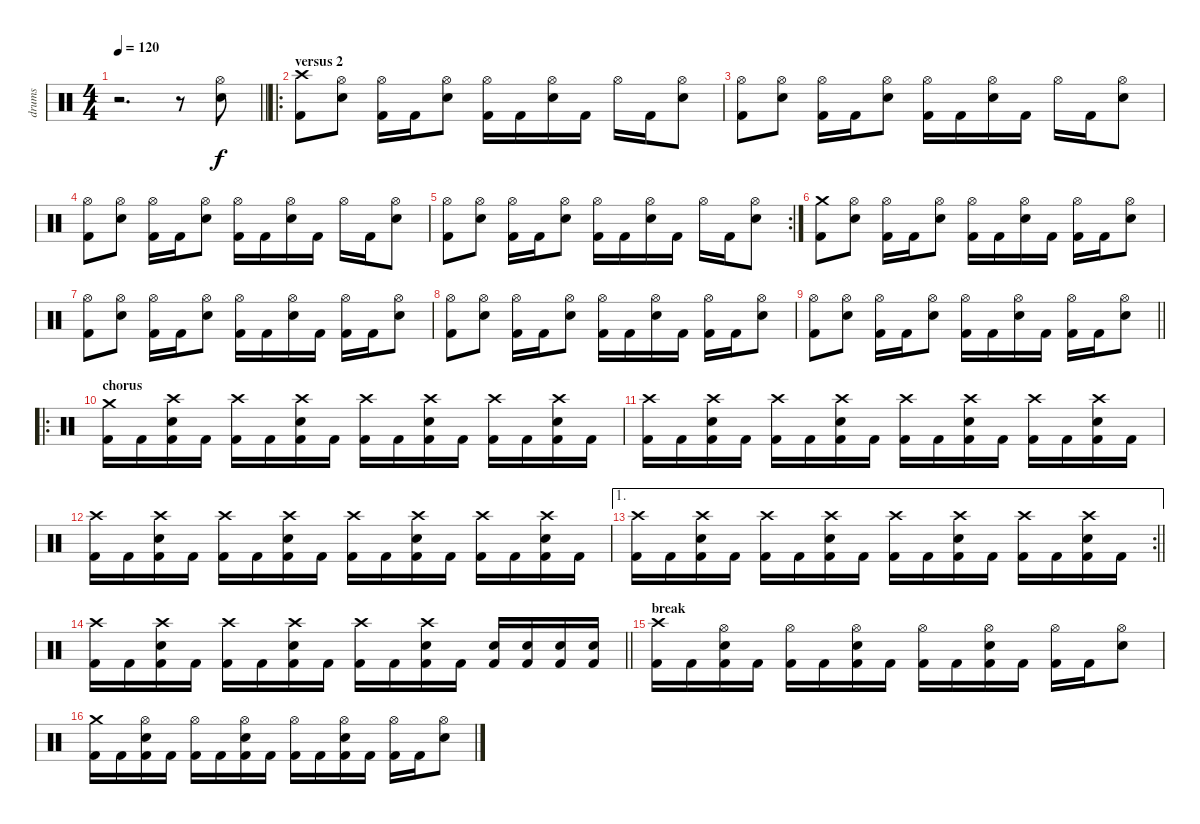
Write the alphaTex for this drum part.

\track ("drums" "drums") {instrument percussion}
\staff {score}
\articulation defaults
\ts (4 4)
\tempo 120
\clef neutral
\barLineRight lightlight
\ks c
r.2{d dy f} r.8 ("Hi-Hat (open)" "Snare (hit) 2").8 |
\ro
\section ("" "versus 2")
("Crash high (hit)" "Kick (hit) 2").8 ("Hi-Hat (open)" "Snare (hit) 2").8 ("Hi-Hat (open)" "Kick (hit) 2").16 "Kick (hit) 2".16 ("Hi-Hat (open)" "Snare (hit) 2").8 ("Hi-Hat (open)" "Kick (hit) 2").16 "Kick (hit) 2".16 ("Hi-Hat (open)" "Snare (hit) 2").16 "Kick (hit) 2".16 "Hi-Hat (open)".16 "Kick (hit) 2".16 ("Hi-Hat (open)" "Snare (hit) 2").8 |
("Hi-Hat (open)" "Kick (hit) 2").8 ("Hi-Hat (open)" "Snare (hit) 2").8 ("Hi-Hat (open)" "Kick (hit) 2").16 "Kick (hit) 2".16 ("Hi-Hat (open)" "Snare (hit) 2").8 ("Hi-Hat (open)" "Kick (hit) 2").16 "Kick (hit) 2".16 ("Hi-Hat (open)" "Snare (hit) 2").16 "Kick (hit) 2".16 "Hi-Hat (open)".16 "Kick (hit) 2".16 ("Hi-Hat (open)" "Snare (hit) 2").8 |
("Hi-Hat (open)" "Kick (hit) 2").8 ("Hi-Hat (open)" "Snare (hit) 2").8 ("Hi-Hat (open)" "Kick (hit) 2").16 "Kick (hit) 2".16 ("Hi-Hat (open)" "Snare (hit) 2").8 ("Hi-Hat (open)" "Kick (hit) 2").16 "Kick (hit) 2".16 ("Hi-Hat (open)" "Snare (hit) 2").16 "Kick (hit) 2".16 "Hi-Hat (open)".16 "Kick (hit) 2".16 ("Hi-Hat (open)" "Snare (hit) 2").8 |
\rc 2
("Hi-Hat (open)" "Kick (hit) 2").8 ("Hi-Hat (open)" "Snare (hit) 2").8 ("Hi-Hat (open)" "Kick (hit) 2").16 "Kick (hit) 2".16 ("Hi-Hat (open)" "Snare (hit) 2").8 ("Hi-Hat (open)" "Kick (hit) 2").16 "Kick (hit) 2".16 ("Hi-Hat (open)" "Snare (hit) 2").16 "Kick (hit) 2".16 "Hi-Hat (open)".16 "Kick (hit) 2".16 ("Hi-Hat (open)" "Snare (hit) 2").8 |
("Crash medium (hit)" "Kick (hit) 2").8 ("Hi-Hat (open)" "Snare (hit) 2").8 ("Hi-Hat (open)" "Kick (hit) 2").16 "Kick (hit) 2".16 ("Hi-Hat (open)" "Snare (hit) 2").8 ("Hi-Hat (open)" "Kick (hit) 2").16 "Kick (hit) 2".16 ("Hi-Hat (open)" "Snare (hit) 2").16 "Kick (hit) 2".16 ("Hi-Hat (open)" "Kick (hit) 2").16 "Kick (hit) 2".16 ("Hi-Hat (open)" "Snare (hit) 2").8 |
("Hi-Hat (open)" "Kick (hit) 2").8 ("Hi-Hat (open)" "Snare (hit) 2").8 ("Hi-Hat (open)" "Kick (hit) 2").16 "Kick (hit) 2".16 ("Hi-Hat (open)" "Snare (hit) 2").8 ("Hi-Hat (open)" "Kick (hit) 2").16 "Kick (hit) 2".16 ("Hi-Hat (open)" "Snare (hit) 2").16 "Kick (hit) 2".16 ("Hi-Hat (open)" "Kick (hit) 2").16 "Kick (hit) 2".16 ("Hi-Hat (open)" "Snare (hit) 2").8 |
("Hi-Hat (open)" "Kick (hit) 2").8 ("Hi-Hat (open)" "Snare (hit) 2").8 ("Hi-Hat (open)" "Kick (hit) 2").16 "Kick (hit) 2".16 ("Hi-Hat (open)" "Snare (hit) 2").8 ("Hi-Hat (open)" "Kick (hit) 2").16 "Kick (hit) 2".16 ("Hi-Hat (open)" "Snare (hit) 2").16 "Kick (hit) 2".16 ("Hi-Hat (open)" "Kick (hit) 2").16 "Kick (hit) 2".16 ("Hi-Hat (open)" "Snare (hit) 2").8 |
\barLineRight lightlight
("Hi-Hat (open)" "Kick (hit) 2").8 ("Hi-Hat (open)" "Snare (hit) 2").8 ("Hi-Hat (open)" "Kick (hit) 2").16 "Kick (hit) 2".16 ("Hi-Hat (open)" "Snare (hit) 2").8 ("Hi-Hat (open)" "Kick (hit) 2").16 "Kick (hit) 2".16 ("Hi-Hat (open)" "Snare (hit) 2").16 "Kick (hit) 2".16 ("Hi-Hat (open)" "Kick (hit) 2").16 "Kick (hit) 2".16 ("Hi-Hat (open)" "Snare (hit) 2").8 |
\ro
\section ("" "chorus")
("Crash medium (hit)" "Kick (hit) 2").16 "Kick (hit) 2".16 ("Crash high (hit)" "Snare (hit) 2" "Kick (hit) 2").16 "Kick (hit) 2".16 ("Crash high (hit)" "Kick (hit) 2").16 "Kick (hit) 2".16 ("Crash high (hit)" "Snare (hit) 2" "Kick (hit) 2").16 "Kick (hit) 2".16 ("Crash high (hit)" "Kick (hit) 2").16 "Kick (hit) 2".16 ("Crash high (hit)" "Snare (hit) 2" "Kick (hit) 2").16 "Kick (hit) 2".16 ("Crash high (hit)" "Kick (hit) 2").16 "Kick (hit) 2".16 ("Crash high (hit)" "Snare (hit) 2" "Kick (hit) 2").16 "Kick (hit) 2".16 |
("Crash high (hit)" "Kick (hit) 2").16 "Kick (hit) 2".16 ("Crash high (hit)" "Snare (hit) 2" "Kick (hit) 2").16 "Kick (hit) 2".16 ("Crash high (hit)" "Kick (hit) 2").16 "Kick (hit) 2".16 ("Crash high (hit)" "Snare (hit) 2" "Kick (hit) 2").16 "Kick (hit) 2".16 ("Crash high (hit)" "Kick (hit) 2").16 "Kick (hit) 2".16 ("Crash high (hit)" "Snare (hit) 2" "Kick (hit) 2").16 "Kick (hit) 2".16 ("Crash high (hit)" "Kick (hit) 2").16 "Kick (hit) 2".16 ("Crash high (hit)" "Snare (hit) 2" "Kick (hit) 2").16 "Kick (hit) 2".16 |
("Crash high (hit)" "Kick (hit) 2").16 "Kick (hit) 2".16 ("Crash high (hit)" "Snare (hit) 2" "Kick (hit) 2").16 "Kick (hit) 2".16 ("Crash high (hit)" "Kick (hit) 2").16 "Kick (hit) 2".16 ("Crash high (hit)" "Snare (hit) 2" "Kick (hit) 2").16 "Kick (hit) 2".16 ("Crash high (hit)" "Kick (hit) 2").16 "Kick (hit) 2".16 ("Crash high (hit)" "Snare (hit) 2" "Kick (hit) 2").16 "Kick (hit) 2".16 ("Crash high (hit)" "Kick (hit) 2").16 "Kick (hit) 2".16 ("Crash high (hit)" "Snare (hit) 2" "Kick (hit) 2").16 "Kick (hit) 2".16 |
\ae 1
\rc 2
\barLineRight lightlight
("Crash high (hit)" "Kick (hit) 2").16 "Kick (hit) 2".16 ("Crash high (hit)" "Snare (hit) 2" "Kick (hit) 2").16 "Kick (hit) 2".16 ("Crash high (hit)" "Kick (hit) 2").16 "Kick (hit) 2".16 ("Crash high (hit)" "Snare (hit) 2" "Kick (hit) 2").16 "Kick (hit) 2".16 ("Crash high (hit)" "Kick (hit) 2").16 "Kick (hit) 2".16 ("Crash high (hit)" "Snare (hit) 2" "Kick (hit) 2").16 "Kick (hit) 2".16 ("Crash high (hit)" "Kick (hit) 2").16 "Kick (hit) 2".16 ("Crash high (hit)" "Snare (hit) 2" "Kick (hit) 2").16 "Kick (hit) 2".16 |
\barLineRight lightlight
("Crash high (hit)" "Kick (hit) 2").16 "Kick (hit) 2".16 ("Crash high (hit)" "Snare (hit) 2" "Kick (hit) 2").16 "Kick (hit) 2".16 ("Crash high (hit)" "Kick (hit) 2").16 "Kick (hit) 2".16 ("Crash high (hit)" "Snare (hit) 2" "Kick (hit) 2").16 "Kick (hit) 2".16 ("Crash high (hit)" "Kick (hit) 2").16 "Kick (hit) 2".16 ("Crash high (hit)" "Snare (hit) 2" "Kick (hit) 2").16 "Kick (hit) 2".16 ("Snare (hit) 2" "Kick (hit) 2").16 ("Snare (hit) 2" "Kick (hit) 2").16 ("Snare (hit) 2" "Kick (hit) 2").16 ("Snare (hit) 2" "Kick (hit) 2").16 |
\section ("" "break")
("Crash high (hit)" "Kick (hit) 2").16 "Kick (hit) 2".16 ("Hi-Hat (open)" "Snare (hit) 2" "Kick (hit) 2").16 "Kick (hit) 2".16 ("Hi-Hat (open)" "Kick (hit) 2").16 "Kick (hit) 2".16 ("Hi-Hat (open)" "Snare (hit) 2" "Kick (hit) 2").16 "Kick (hit) 2".16 ("Hi-Hat (open)" "Kick (hit) 2").16 "Kick (hit) 2".16 ("Hi-Hat (open)" "Snare (hit) 2" "Kick (hit) 2").16 "Kick (hit) 2".16 ("Hi-Hat (open)" "Kick (hit) 2").16 "Kick (hit) 2".16 ("Hi-Hat (open)" "Snare (hit) 2").8 |
("Crash medium (hit)" "Kick (hit) 2").16 "Kick (hit) 2".16 ("Hi-Hat (open)" "Snare (hit) 2" "Kick (hit) 2").16 "Kick (hit) 2".16 ("Hi-Hat (open)" "Kick (hit) 2").16 "Kick (hit) 2".16 ("Hi-Hat (open)" "Snare (hit) 2" "Kick (hit) 2").16 "Kick (hit) 2".16 ("Hi-Hat (open)" "Kick (hit) 2").16 "Kick (hit) 2".16 ("Hi-Hat (open)" "Snare (hit) 2" "Kick (hit) 2").16 "Kick (hit) 2".16 ("Hi-Hat (open)" "Kick (hit) 2").16 "Kick (hit) 2".16 ("Hi-Hat (open)" "Snare (hit) 2").8
